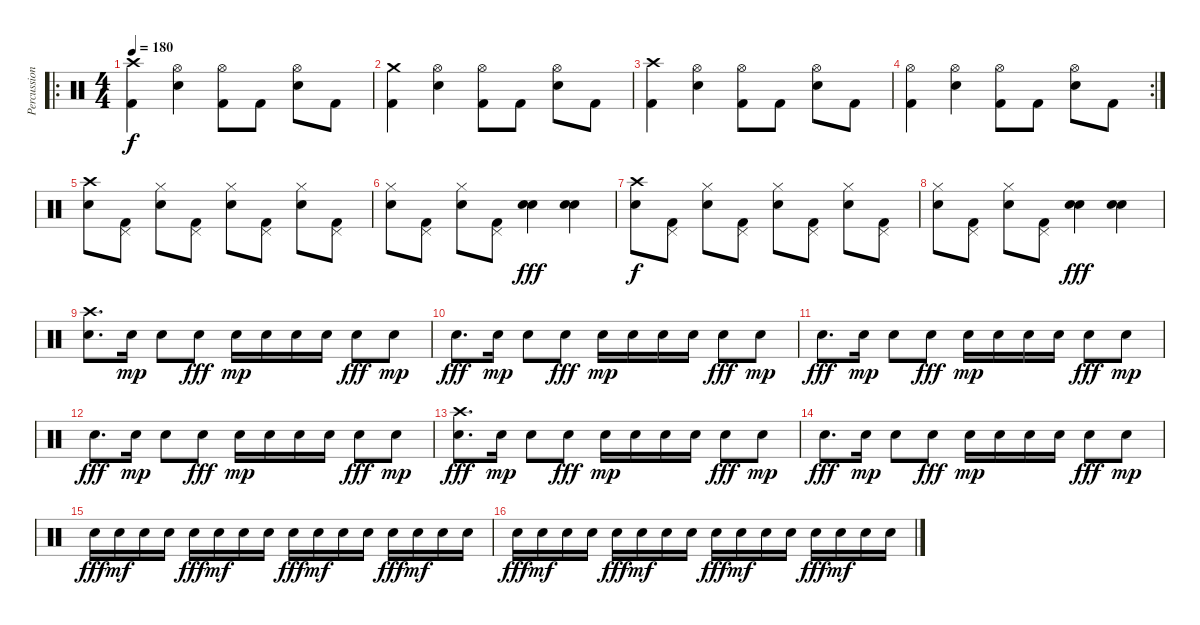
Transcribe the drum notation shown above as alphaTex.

\track ("Percussion" "Percussion") {instrument percussion}
\staff {score}
\articulation defaults
\ro
\ts (4 4)
\tempo 180
\clef neutral
\ks c
("Crash high (hit)" "Kick (hit) 2").4{dy f volume 13} ("Hi-Hat (open)" "Electric Snare (hit)").4 ("Hi-Hat (open)" "Kick (hit) 2").8 "Kick (hit) 2".8 ("Hi-Hat (open)" "Electric Snare (hit)").8 "Kick (hit) 2".8 |
("Crash medium (hit)" "Kick (hit) 2").4 ("Hi-Hat (open)" "Electric Snare (hit)").4 ("Hi-Hat (open)" "Kick (hit) 2").8 "Kick (hit) 2".8 ("Hi-Hat (open)" "Electric Snare (hit)").8 "Kick (hit) 2".8 |
("Crash high (hit)" "Kick (hit) 2").4 ("Hi-Hat (open)" "Electric Snare (hit)").4 ("Hi-Hat (open)" "Kick (hit) 2").8 "Kick (hit) 2".8 ("Hi-Hat (open)" "Electric Snare (hit)").8 "Kick (hit) 2".8 |
\rc 2
("Hi-Hat (open)" "Kick (hit) 2").4 ("Hi-Hat (open)" "Electric Snare (hit)").4 ("Hi-Hat (open)" "Kick (hit) 2").8 "Kick (hit) 2".8 ("Hi-Hat (open)" "Electric Snare (hit)").8 "Kick (hit) 2".8 |
("Crash high (hit)" "Snare (hit) 2").8 ("Pedal Hi-Hat (hit)" "Kick (hit) 2").8 ("Hi-Hat (closed)" "Snare (hit) 2").8 ("Pedal Hi-Hat (hit)" "Kick (hit) 2").8 ("Hi-Hat (closed)" "Snare (hit) 2").8 ("Pedal Hi-Hat (hit)" "Kick (hit) 2").8 ("Hi-Hat (closed)" "Snare (hit) 2").8 ("Pedal Hi-Hat (hit)" "Kick (hit) 2").8 |
("Hi-Hat (closed)" "Snare (hit) 2").8 ("Pedal Hi-Hat (hit)" "Kick (hit) 2").8 ("Hi-Hat (closed)" "Snare (hit) 2").8 ("Pedal Hi-Hat (hit)" "Kick (hit) 2").8 ("Snare (hit) 2" "Electric Snare (hit)").4{dy fff} ("Snare (hit) 2" "Electric Snare (hit)").4 |
("Crash high (hit)" "Snare (hit) 2").8{dy f} ("Pedal Hi-Hat (hit)" "Kick (hit) 2").8 ("Hi-Hat (closed)" "Snare (hit) 2").8 ("Pedal Hi-Hat (hit)" "Kick (hit) 2").8 ("Hi-Hat (closed)" "Snare (hit) 2").8 ("Pedal Hi-Hat (hit)" "Kick (hit) 2").8 ("Hi-Hat (closed)" "Snare (hit) 2").8 ("Pedal Hi-Hat (hit)" "Kick (hit) 2").8 |
("Hi-Hat (closed)" "Snare (hit) 2").8 ("Pedal Hi-Hat (hit)" "Kick (hit) 2").8 ("Hi-Hat (closed)" "Snare (hit) 2").8 ("Pedal Hi-Hat (hit)" "Kick (hit) 2").8 ("Snare (hit) 2" "Electric Snare (hit)").4{dy fff} ("Snare (hit) 2" "Electric Snare (hit)").4 |
("Crash high (hit)" "Electric Snare (hit)").8{d} "Electric Snare (hit)".16{dy mp} "Electric Snare (hit)".8 "Electric Snare (hit)".8{dy fff} "Electric Snare (hit)".16{dy mp} "Electric Snare (hit)".16 "Electric Snare (hit)".16 "Electric Snare (hit)".16 "Electric Snare (hit)".8{dy fff} "Electric Snare (hit)".8{dy mp} |
"Electric Snare (hit)".8{d dy fff} "Electric Snare (hit)".16{dy mp} "Electric Snare (hit)".8 "Electric Snare (hit)".8{dy fff} "Electric Snare (hit)".16{dy mp} "Electric Snare (hit)".16 "Electric Snare (hit)".16 "Electric Snare (hit)".16 "Electric Snare (hit)".8{dy fff} "Electric Snare (hit)".8{dy mp} |
"Electric Snare (hit)".8{d dy fff} "Electric Snare (hit)".16{dy mp} "Electric Snare (hit)".8 "Electric Snare (hit)".8{dy fff} "Electric Snare (hit)".16{dy mp} "Electric Snare (hit)".16 "Electric Snare (hit)".16 "Electric Snare (hit)".16 "Electric Snare (hit)".8{dy fff} "Electric Snare (hit)".8{dy mp} |
"Electric Snare (hit)".8{d dy fff} "Electric Snare (hit)".16{dy mp} "Electric Snare (hit)".8 "Electric Snare (hit)".8{dy fff} "Electric Snare (hit)".16{dy mp} "Electric Snare (hit)".16 "Electric Snare (hit)".16 "Electric Snare (hit)".16 "Electric Snare (hit)".8{dy fff} "Electric Snare (hit)".8{dy mp} |
("Crash high (hit)" "Electric Snare (hit)").8{d dy fff} "Electric Snare (hit)".16{dy mp} "Electric Snare (hit)".8 "Electric Snare (hit)".8{dy fff} "Electric Snare (hit)".16{dy mp} "Electric Snare (hit)".16 "Electric Snare (hit)".16 "Electric Snare (hit)".16 "Electric Snare (hit)".8{dy fff} "Electric Snare (hit)".8{dy mp} |
"Electric Snare (hit)".8{d dy fff} "Electric Snare (hit)".16{dy mp} "Electric Snare (hit)".8 "Electric Snare (hit)".8{dy fff} "Electric Snare (hit)".16{dy mp} "Electric Snare (hit)".16 "Electric Snare (hit)".16 "Electric Snare (hit)".16 "Electric Snare (hit)".8{dy fff} "Electric Snare (hit)".8{dy mp} |
"Electric Snare (hit)".16{dy fff volume 16} "Electric Snare (hit)".16{dy mf} "Electric Snare (hit)".16 "Electric Snare (hit)".16 "Electric Snare (hit)".16{dy fff} "Electric Snare (hit)".16{dy mf} "Electric Snare (hit)".16 "Electric Snare (hit)".16 "Electric Snare (hit)".16{dy fff} "Electric Snare (hit)".16{dy mf} "Electric Snare (hit)".16 "Electric Snare (hit)".16 "Electric Snare (hit)".16{dy fff} "Electric Snare (hit)".16{dy mf} "Electric Snare (hit)".16 "Electric Snare (hit)".16 |
"Electric Snare (hit)".16{dy fff} "Electric Snare (hit)".16{dy mf} "Electric Snare (hit)".16 "Electric Snare (hit)".16 "Electric Snare (hit)".16{dy fff} "Electric Snare (hit)".16{dy mf} "Electric Snare (hit)".16 "Electric Snare (hit)".16 "Electric Snare (hit)".16{dy fff} "Electric Snare (hit)".16{dy mf} "Electric Snare (hit)".16 "Electric Snare (hit)".16 "Electric Snare (hit)".16{dy fff} "Electric Snare (hit)".16{dy mf} "Electric Snare (hit)".16 "Electric Snare (hit)".16
